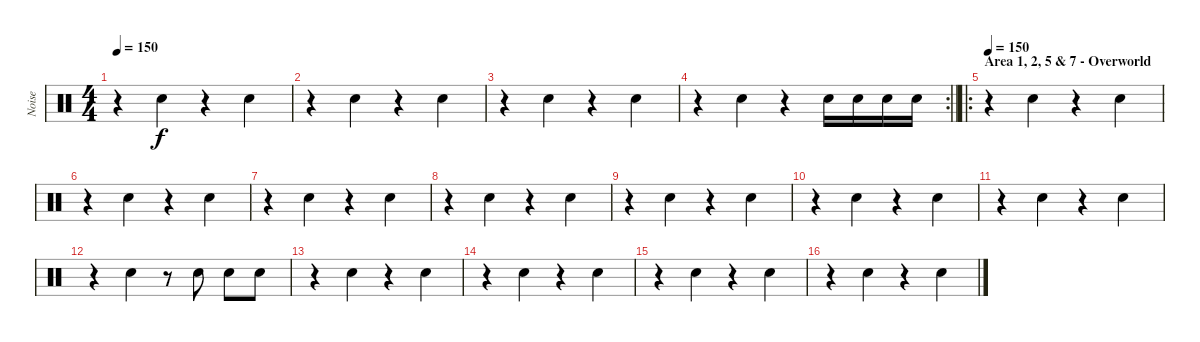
\track ("Noise" "Noise") {instrument percussion}
\staff {score}
\articulation defaults
\ts (4 4)
\tempo 150
\clef neutral
\ks c
r.4{dy f} "Snare (hit) 2".4 r.4 "Snare (hit) 2".4 |
r.4 "Snare (hit) 2".4 r.4 "Snare (hit) 2".4 |
r.4 "Snare (hit) 2".4 r.4 "Snare (hit) 2".4 |
\rc 2
\barLineRight lightlight
r.4 "Snare (hit) 2".4 r.4 "Snare (hit) 2".16 "Snare (hit) 2".16 "Snare (hit) 2".16 "Snare (hit) 2".16 |
\ro
\section ("" "Area 1, 2, 5 & 7 - Overworld")
\tempo 150
r.4{volume 13} "Snare (hit) 2".4 r.4 "Snare (hit) 2".4 |
r.4 "Snare (hit) 2".4 r.4 "Snare (hit) 2".4 |
r.4 "Snare (hit) 2".4 r.4 "Snare (hit) 2".4 |
r.4 "Snare (hit) 2".4 r.4 "Snare (hit) 2".4 |
r.4 "Snare (hit) 2".4 r.4 "Snare (hit) 2".4 |
r.4 "Snare (hit) 2".4 r.4 "Snare (hit) 2".4 |
r.4 "Snare (hit) 2".4 r.4 "Snare (hit) 2".4 |
r.4 "Snare (hit) 2".4 r.8 "Snare (hit) 2".8 "Snare (hit) 2".8 "Snare (hit) 2".8 |
r.4 "Snare (hit) 2".4 r.4 "Snare (hit) 2".4 |
r.4 "Snare (hit) 2".4 r.4 "Snare (hit) 2".4 |
r.4 "Snare (hit) 2".4 r.4 "Snare (hit) 2".4 |
r.4 "Snare (hit) 2".4 r.4 "Snare (hit) 2".4
